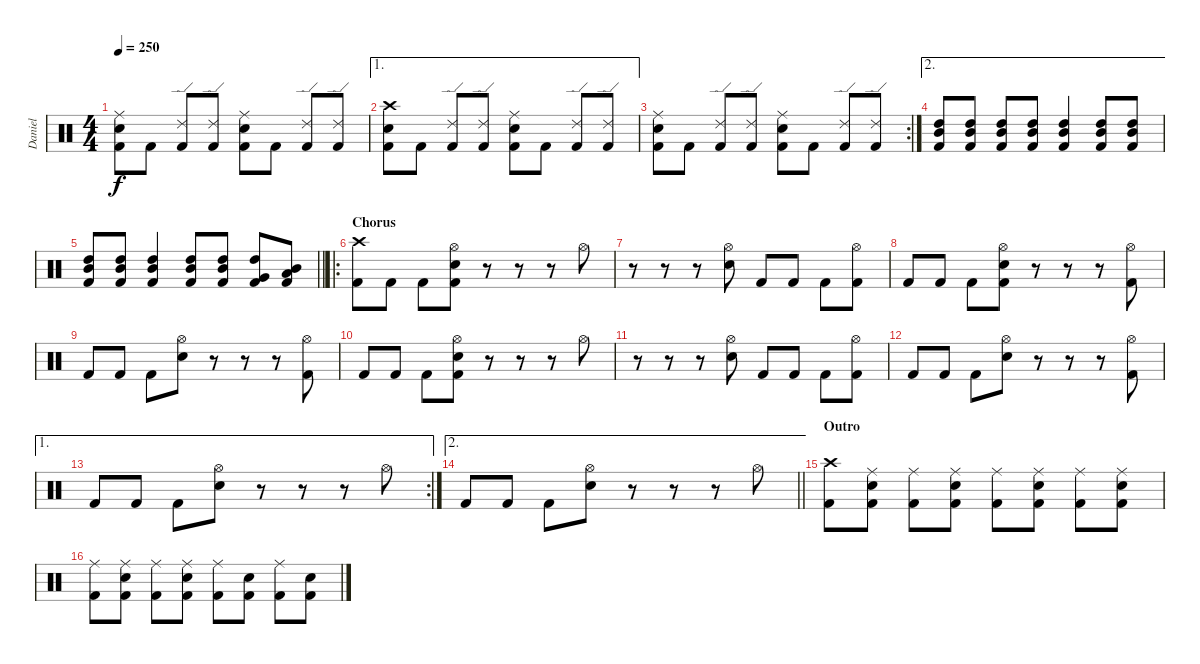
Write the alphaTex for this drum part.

\track ("Daniel" "Daniel") {instrument percussion}
\staff {score}
\articulation defaults
\ts (4 4)
\tempo 250
\clef neutral
\ks c
("Ride (middle)" "Snare (hit) 2" "Kick (hit) 2").8{dy f} "Kick (hit) 2".8 ("Ride (edge) 2" "Kick (hit) 2").8 ("Ride (edge) 2" "Kick (hit) 2").8 ("Ride (middle)" "Snare (hit) 2" "Kick (hit) 2").8 "Kick (hit) 2".8 ("Ride (edge) 2" "Kick (hit) 2").8 ("Ride (edge) 2" "Kick (hit) 2").8 |
\ae 1
("Crash high (hit)" "Snare (hit) 2" "Kick (hit) 2").8 "Kick (hit) 2".8 ("Ride (edge) 2" "Kick (hit) 2").8 ("Ride (edge) 2" "Kick (hit) 2").8 ("Ride (middle)" "Snare (hit) 2" "Kick (hit) 2").8 "Kick (hit) 2".8 ("Ride (edge) 2" "Kick (hit) 2").8 ("Ride (edge) 2" "Kick (hit) 2").8 |
\rc 2
("Ride (middle)" "Snare (hit) 2" "Kick (hit) 2").8 "Kick (hit) 2".8 ("Ride (edge) 2" "Kick (hit) 2").8 ("Ride (edge) 2" "Kick (hit) 2").8 ("Ride (middle)" "Snare (hit) 2" "Kick (hit) 2").8 "Kick (hit) 2".8 ("Ride (edge) 2" "Kick (hit) 2").8 ("Ride (edge) 2" "Kick (hit) 2").8 |
\ae 2
("High Tom (hit)" "Mid Tom (hit)" "Kick (hit) 2").8 ("High Tom (hit)" "Mid Tom (hit)" "Kick (hit) 2").8 ("High Tom (hit)" "Mid Tom (hit)" "Kick (hit) 2").8 ("High Tom (hit)" "Mid Tom (hit)" "Kick (hit) 2").8 ("High Tom (hit)" "Mid Tom (hit)" "Kick (hit) 2").4 ("High Tom (hit)" "Mid Tom (hit)" "Kick (hit) 2").8 ("High Tom (hit)" "Mid Tom (hit)" "Kick (hit) 2").8 |
\barLineRight lightlight
("High Tom (hit)" "Mid Tom (hit)" "Kick (hit) 2").8 ("High Tom (hit)" "Mid Tom (hit)" "Kick (hit) 2").8 ("High Tom (hit)" "Mid Tom (hit)" "Kick (hit) 2").4 ("High Tom (hit)" "Mid Tom (hit)" "Kick (hit) 2").8 ("High Tom (hit)" "Mid Tom (hit)" "Kick (hit) 2").8 ("High Tom (hit)" "Very Low Tom (hit)" "Kick (hit) 2").8 ("Mid Tom (hit)" "Low Floor Tom (hit)" "Kick (hit) 2").8 |
\ro
\section ("" "Chorus")
("Crash high (hit)" "Kick (hit) 2").8 "Kick (hit) 2".8 "Kick (hit) 2".8 ("Hi-Hat (open)" "Snare (hit) 2" "Kick (hit) 2").8 r.8 r.8 r.8 "Hi-Hat (open)".8 |
r.8 r.8 r.8 ("Hi-Hat (open)" "Snare (hit) 2").8 "Kick (hit) 2".8 "Kick (hit) 2".8 "Kick (hit) 2".8 ("Hi-Hat (open)" "Kick (hit) 2").8 |
"Kick (hit) 2".8 "Kick (hit) 2".8 "Kick (hit) 2".8 ("Hi-Hat (open)" "Snare (hit) 2" "Kick (hit) 2").8 r.8 r.8 r.8 ("Hi-Hat (open)" "Kick (hit) 2").8 |
"Kick (hit) 2".8 "Kick (hit) 2".8 "Kick (hit) 2".8 ("Hi-Hat (open)" "Snare (hit) 2").8 r.8 r.8 r.8 ("Hi-Hat (open)" "Kick (hit) 2").8 |
"Kick (hit) 2".8 "Kick (hit) 2".8 "Kick (hit) 2".8 ("Hi-Hat (open)" "Snare (hit) 2" "Kick (hit) 2").8 r.8 r.8 r.8 "Hi-Hat (open)".8 |
r.8 r.8 r.8 ("Hi-Hat (open)" "Snare (hit) 2").8 "Kick (hit) 2".8 "Kick (hit) 2".8 "Kick (hit) 2".8 ("Hi-Hat (open)" "Kick (hit) 2").8 |
"Kick (hit) 2".8 "Kick (hit) 2".8 "Kick (hit) 2".8 ("Hi-Hat (open)" "Snare (hit) 2").8 r.8 r.8 r.8 ("Hi-Hat (open)" "Kick (hit) 2").8 |
\ae 1
\rc 2 "Kick (hit) 2".8 "Kick (hit) 2".8 "Kick (hit) 2".8
("Hi-Hat (open)" "Snare (hit) 2").8 r.8 r.8 r.8 "Hi-Hat (open)".8 |
\ae 2
\barLineRight lightlight "Kick (hit) 2".8 "Kick (hit) 2".8 "Kick (hit) 2".8
("Hi-Hat (open)" "Snare (hit) 2").8 r.8 r.8 r.8 "Hi-Hat (open)".8 |
\section ("" "Outro")
("Crash high (hit)" "Kick (hit) 2").8 ("Ride (middle)" "Snare (hit) 2" "Kick (hit) 2").8 ("Ride (middle)" "Kick (hit) 2").8 ("Ride (middle)" "Snare (hit) 2" "Kick (hit) 2").8 ("Ride (middle)" "Kick (hit) 2").8 ("Ride (middle)" "Snare (hit) 2" "Kick (hit) 2").8 ("Ride (middle)" "Kick (hit) 2").8 ("Ride (middle)" "Snare (hit) 2" "Kick (hit) 2").8 |
("Ride (middle)" "Kick (hit) 2").8 ("Ride (middle)" "Snare (hit) 2" "Kick (hit) 2").8 ("Ride (middle)" "Kick (hit) 2").8 ("Ride (middle)" "Snare (hit) 2" "Kick (hit) 2").8 ("Ride (middle)" "Kick (hit) 2").8 ("Snare (hit) 2" "Kick (hit) 2").8 ("Ride (middle)" "Kick (hit) 2").8 ("Snare (hit) 2" "Kick (hit) 2").8
